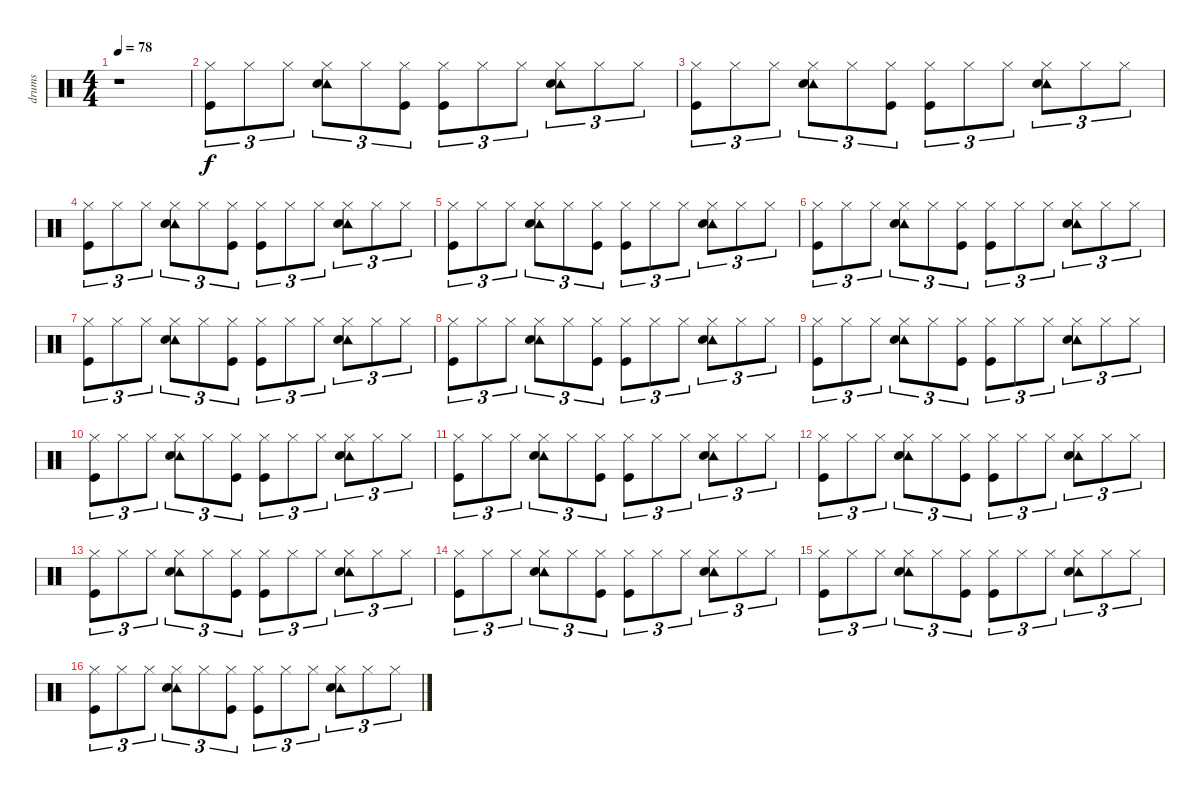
\track ("drums" "drums") {instrument percussion}
\staff {score}
\articulation defaults
\ts (4 4)
\tempo 78
\clef neutral
\ks c
r.1{dy f} |
("Hi-Hat (closed)" "Kick (hit)").8{tu (3 2)} "Hi-Hat (closed)".8{tu (3 2)} "Hi-Hat (closed)".8{tu (3 2)} ("Hi-Hat (closed)" "Tambourine (hit)" "Electric Snare (hit)").8{tu (3 2)} "Hi-Hat (closed)".8{tu (3 2)} ("Hi-Hat (closed)" "Kick (hit)").8{tu (3 2)} ("Hi-Hat (closed)" "Kick (hit)").8{tu (3 2)} "Hi-Hat (closed)".8{tu (3 2)} "Hi-Hat (closed)".8{tu (3 2)} ("Hi-Hat (closed)" "Tambourine (hit)" "Electric Snare (hit)").8{tu (3 2)} "Hi-Hat (closed)".8{tu (3 2)} "Hi-Hat (closed)".8{tu (3 2)} |
("Hi-Hat (closed)" "Kick (hit)").8{tu (3 2)} "Hi-Hat (closed)".8{tu (3 2)} "Hi-Hat (closed)".8{tu (3 2)} ("Hi-Hat (closed)" "Tambourine (hit)" "Electric Snare (hit)").8{tu (3 2)} "Hi-Hat (closed)".8{tu (3 2)} ("Hi-Hat (closed)" "Kick (hit)").8{tu (3 2)} ("Hi-Hat (closed)" "Kick (hit)").8{tu (3 2)} "Hi-Hat (closed)".8{tu (3 2)} "Hi-Hat (closed)".8{tu (3 2)} ("Hi-Hat (closed)" "Tambourine (hit)" "Electric Snare (hit)").8{tu (3 2)} "Hi-Hat (closed)".8{tu (3 2)} "Hi-Hat (closed)".8{tu (3 2)} |
("Hi-Hat (closed)" "Kick (hit)").8{tu (3 2)} "Hi-Hat (closed)".8{tu (3 2)} "Hi-Hat (closed)".8{tu (3 2)} ("Hi-Hat (closed)" "Tambourine (hit)" "Electric Snare (hit)").8{tu (3 2)} "Hi-Hat (closed)".8{tu (3 2)} ("Hi-Hat (closed)" "Kick (hit)").8{tu (3 2)} ("Hi-Hat (closed)" "Kick (hit)").8{tu (3 2)} "Hi-Hat (closed)".8{tu (3 2)} "Hi-Hat (closed)".8{tu (3 2)} ("Hi-Hat (closed)" "Tambourine (hit)" "Electric Snare (hit)").8{tu (3 2)} "Hi-Hat (closed)".8{tu (3 2)} "Hi-Hat (closed)".8{tu (3 2)} |
("Hi-Hat (closed)" "Kick (hit)").8{tu (3 2)} "Hi-Hat (closed)".8{tu (3 2)} "Hi-Hat (closed)".8{tu (3 2)} ("Hi-Hat (closed)" "Tambourine (hit)" "Electric Snare (hit)").8{tu (3 2)} "Hi-Hat (closed)".8{tu (3 2)} ("Hi-Hat (closed)" "Kick (hit)").8{tu (3 2)} ("Hi-Hat (closed)" "Kick (hit)").8{tu (3 2)} "Hi-Hat (closed)".8{tu (3 2)} "Hi-Hat (closed)".8{tu (3 2)} ("Hi-Hat (closed)" "Tambourine (hit)" "Electric Snare (hit)").8{tu (3 2)} "Hi-Hat (closed)".8{tu (3 2)} "Hi-Hat (closed)".8{tu (3 2)} |
("Hi-Hat (closed)" "Kick (hit)").8{tu (3 2)} "Hi-Hat (closed)".8{tu (3 2)} "Hi-Hat (closed)".8{tu (3 2)} ("Hi-Hat (closed)" "Tambourine (hit)" "Electric Snare (hit)").8{tu (3 2)} "Hi-Hat (closed)".8{tu (3 2)} ("Hi-Hat (closed)" "Kick (hit)").8{tu (3 2)} ("Hi-Hat (closed)" "Kick (hit)").8{tu (3 2)} "Hi-Hat (closed)".8{tu (3 2)} "Hi-Hat (closed)".8{tu (3 2)} ("Hi-Hat (closed)" "Tambourine (hit)" "Electric Snare (hit)").8{tu (3 2)} "Hi-Hat (closed)".8{tu (3 2)} "Hi-Hat (closed)".8{tu (3 2)} |
("Hi-Hat (closed)" "Kick (hit)").8{tu (3 2)} "Hi-Hat (closed)".8{tu (3 2)} "Hi-Hat (closed)".8{tu (3 2)} ("Hi-Hat (closed)" "Tambourine (hit)" "Electric Snare (hit)").8{tu (3 2)} "Hi-Hat (closed)".8{tu (3 2)} ("Hi-Hat (closed)" "Kick (hit)").8{tu (3 2)} ("Hi-Hat (closed)" "Kick (hit)").8{tu (3 2)} "Hi-Hat (closed)".8{tu (3 2)} "Hi-Hat (closed)".8{tu (3 2)} ("Hi-Hat (closed)" "Tambourine (hit)" "Electric Snare (hit)").8{tu (3 2)} "Hi-Hat (closed)".8{tu (3 2)} "Hi-Hat (closed)".8{tu (3 2)} |
("Hi-Hat (closed)" "Kick (hit)").8{tu (3 2)} "Hi-Hat (closed)".8{tu (3 2)} "Hi-Hat (closed)".8{tu (3 2)} ("Hi-Hat (closed)" "Tambourine (hit)" "Electric Snare (hit)").8{tu (3 2)} "Hi-Hat (closed)".8{tu (3 2)} ("Hi-Hat (closed)" "Kick (hit)").8{tu (3 2)} ("Hi-Hat (closed)" "Kick (hit)").8{tu (3 2)} "Hi-Hat (closed)".8{tu (3 2)} "Hi-Hat (closed)".8{tu (3 2)} ("Hi-Hat (closed)" "Tambourine (hit)" "Electric Snare (hit)").8{tu (3 2)} "Hi-Hat (closed)".8{tu (3 2)} "Hi-Hat (closed)".8{tu (3 2)} |
("Hi-Hat (closed)" "Kick (hit)").8{tu (3 2)} "Hi-Hat (closed)".8{tu (3 2)} "Hi-Hat (closed)".8{tu (3 2)} ("Hi-Hat (closed)" "Tambourine (hit)" "Electric Snare (hit)").8{tu (3 2)} "Hi-Hat (closed)".8{tu (3 2)} ("Hi-Hat (closed)" "Kick (hit)").8{tu (3 2)} ("Hi-Hat (closed)" "Kick (hit)").8{tu (3 2)} "Hi-Hat (closed)".8{tu (3 2)} "Hi-Hat (closed)".8{tu (3 2)} ("Hi-Hat (closed)" "Tambourine (hit)" "Electric Snare (hit)").8{tu (3 2)} "Hi-Hat (closed)".8{tu (3 2)} "Hi-Hat (closed)".8{tu (3 2)} |
("Hi-Hat (closed)" "Kick (hit)").8{tu (3 2)} "Hi-Hat (closed)".8{tu (3 2)} "Hi-Hat (closed)".8{tu (3 2)} ("Hi-Hat (closed)" "Tambourine (hit)" "Electric Snare (hit)").8{tu (3 2)} "Hi-Hat (closed)".8{tu (3 2)} ("Hi-Hat (closed)" "Kick (hit)").8{tu (3 2)} ("Hi-Hat (closed)" "Kick (hit)").8{tu (3 2)} "Hi-Hat (closed)".8{tu (3 2)} "Hi-Hat (closed)".8{tu (3 2)} ("Hi-Hat (closed)" "Tambourine (hit)" "Electric Snare (hit)").8{tu (3 2)} "Hi-Hat (closed)".8{tu (3 2)} "Hi-Hat (closed)".8{tu (3 2)} |
("Hi-Hat (closed)" "Kick (hit)").8{tu (3 2)} "Hi-Hat (closed)".8{tu (3 2)} "Hi-Hat (closed)".8{tu (3 2)} ("Hi-Hat (closed)" "Tambourine (hit)" "Electric Snare (hit)").8{tu (3 2)} "Hi-Hat (closed)".8{tu (3 2)} ("Hi-Hat (closed)" "Kick (hit)").8{tu (3 2)} ("Hi-Hat (closed)" "Kick (hit)").8{tu (3 2)} "Hi-Hat (closed)".8{tu (3 2)} "Hi-Hat (closed)".8{tu (3 2)} ("Hi-Hat (closed)" "Tambourine (hit)" "Electric Snare (hit)").8{tu (3 2)} "Hi-Hat (closed)".8{tu (3 2)} "Hi-Hat (closed)".8{tu (3 2)} |
("Hi-Hat (closed)" "Kick (hit)").8{tu (3 2)} "Hi-Hat (closed)".8{tu (3 2)} "Hi-Hat (closed)".8{tu (3 2)} ("Hi-Hat (closed)" "Tambourine (hit)" "Electric Snare (hit)").8{tu (3 2)} "Hi-Hat (closed)".8{tu (3 2)} ("Hi-Hat (closed)" "Kick (hit)").8{tu (3 2)} ("Hi-Hat (closed)" "Kick (hit)").8{tu (3 2)} "Hi-Hat (closed)".8{tu (3 2)} "Hi-Hat (closed)".8{tu (3 2)} ("Hi-Hat (closed)" "Tambourine (hit)" "Electric Snare (hit)").8{tu (3 2)} "Hi-Hat (closed)".8{tu (3 2)} "Hi-Hat (closed)".8{tu (3 2)} |
("Hi-Hat (closed)" "Kick (hit)").8{tu (3 2)} "Hi-Hat (closed)".8{tu (3 2)} "Hi-Hat (closed)".8{tu (3 2)} ("Hi-Hat (closed)" "Tambourine (hit)" "Electric Snare (hit)").8{tu (3 2)} "Hi-Hat (closed)".8{tu (3 2)} ("Hi-Hat (closed)" "Kick (hit)").8{tu (3 2)} ("Hi-Hat (closed)" "Kick (hit)").8{tu (3 2)} "Hi-Hat (closed)".8{tu (3 2)} "Hi-Hat (closed)".8{tu (3 2)} ("Hi-Hat (closed)" "Tambourine (hit)" "Electric Snare (hit)").8{tu (3 2)} "Hi-Hat (closed)".8{tu (3 2)} "Hi-Hat (closed)".8{tu (3 2)} |
("Hi-Hat (closed)" "Kick (hit)").8{tu (3 2)} "Hi-Hat (closed)".8{tu (3 2)} "Hi-Hat (closed)".8{tu (3 2)} ("Hi-Hat (closed)" "Tambourine (hit)" "Electric Snare (hit)").8{tu (3 2)} "Hi-Hat (closed)".8{tu (3 2)} ("Hi-Hat (closed)" "Kick (hit)").8{tu (3 2)} ("Hi-Hat (closed)" "Kick (hit)").8{tu (3 2)} "Hi-Hat (closed)".8{tu (3 2)} "Hi-Hat (closed)".8{tu (3 2)} ("Hi-Hat (closed)" "Tambourine (hit)" "Electric Snare (hit)").8{tu (3 2)} "Hi-Hat (closed)".8{tu (3 2)} "Hi-Hat (closed)".8{tu (3 2)} |
("Hi-Hat (closed)" "Kick (hit)").8{tu (3 2)} "Hi-Hat (closed)".8{tu (3 2)} "Hi-Hat (closed)".8{tu (3 2)} ("Hi-Hat (closed)" "Tambourine (hit)" "Electric Snare (hit)").8{tu (3 2)} "Hi-Hat (closed)".8{tu (3 2)} ("Hi-Hat (closed)" "Kick (hit)").8{tu (3 2)} ("Hi-Hat (closed)" "Kick (hit)").8{tu (3 2)} "Hi-Hat (closed)".8{tu (3 2)} "Hi-Hat (closed)".8{tu (3 2)} ("Hi-Hat (closed)" "Tambourine (hit)" "Electric Snare (hit)").8{tu (3 2)} "Hi-Hat (closed)".8{tu (3 2)} "Hi-Hat (closed)".8{tu (3 2)} |
("Hi-Hat (closed)" "Kick (hit)").8{tu (3 2)} "Hi-Hat (closed)".8{tu (3 2)} "Hi-Hat (closed)".8{tu (3 2)} ("Hi-Hat (closed)" "Tambourine (hit)" "Electric Snare (hit)").8{tu (3 2)} "Hi-Hat (closed)".8{tu (3 2)} ("Hi-Hat (closed)" "Kick (hit)").8{tu (3 2)} ("Hi-Hat (closed)" "Kick (hit)").8{tu (3 2)} "Hi-Hat (closed)".8{tu (3 2)} "Hi-Hat (closed)".8{tu (3 2)} ("Hi-Hat (closed)" "Tambourine (hit)" "Electric Snare (hit)").8{tu (3 2)} "Hi-Hat (closed)".8{tu (3 2)} "Hi-Hat (closed)".8{tu (3 2)}
